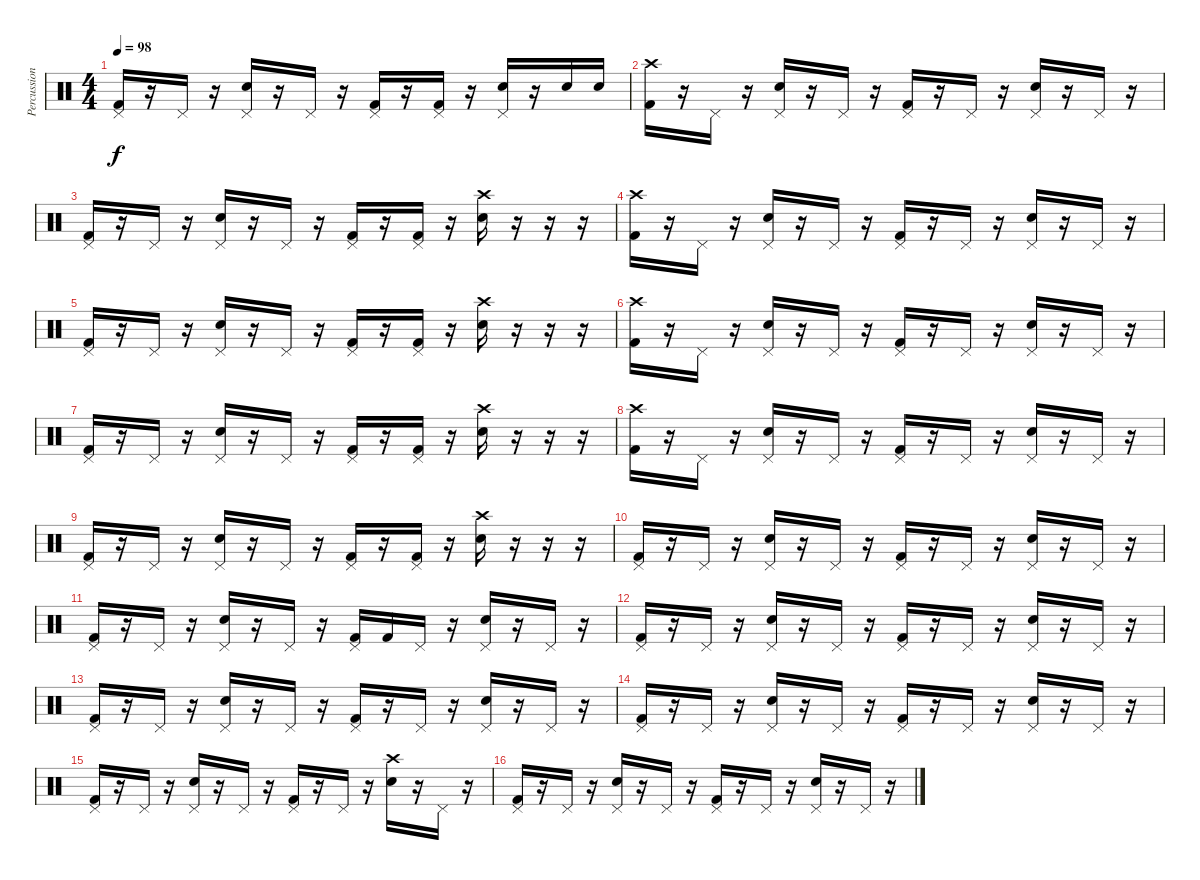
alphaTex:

\track ("Percussion" "Percussion") {instrument percussion}
\staff {score}
\articulation defaults
\ts (4 4)
\tempo 98
\clef neutral
\ks c
("Pedal Hi-Hat (hit)" "Kick (hit) 2").16{dy f} r.16 "Pedal Hi-Hat (hit)".16 r.16 ("Pedal Hi-Hat (hit)" "Snare (hit) 2").16 r.16 "Pedal Hi-Hat (hit)".16 r.16 ("Pedal Hi-Hat (hit)" "Kick (hit) 2").16 r.16 ("Pedal Hi-Hat (hit)" "Kick (hit) 2").16 r.16 ("Pedal Hi-Hat (hit)" "Snare (hit) 2").16 r.16 "Snare (hit) 2".16 "Snare (hit) 2".16 |
("Crash high (hit)" "Kick (hit) 2").16 r.16 "Pedal Hi-Hat (hit)".16 r.16 ("Pedal Hi-Hat (hit)" "Snare (hit) 2").16 r.16 "Pedal Hi-Hat (hit)".16 r.16 ("Pedal Hi-Hat (hit)" "Kick (hit) 2").16 r.16 "Pedal Hi-Hat (hit)".16 r.16 ("Pedal Hi-Hat (hit)" "Snare (hit) 2").16 r.16 "Pedal Hi-Hat (hit)".16 r.16 |
("Pedal Hi-Hat (hit)" "Kick (hit) 2").16 r.16 "Pedal Hi-Hat (hit)".16 r.16 ("Pedal Hi-Hat (hit)" "Snare (hit) 2").16 r.16 "Pedal Hi-Hat (hit)".16 r.16 ("Pedal Hi-Hat (hit)" "Kick (hit) 2").16 r.16 ("Pedal Hi-Hat (hit)" "Kick (hit) 2").16 r.16 ("Crash high (hit)" "Snare (hit) 2").16 r.16 r.16 r.16 |
("Crash high (hit)" "Kick (hit) 2").16 r.16 "Pedal Hi-Hat (hit)".16 r.16 ("Pedal Hi-Hat (hit)" "Snare (hit) 2").16 r.16 "Pedal Hi-Hat (hit)".16 r.16 ("Pedal Hi-Hat (hit)" "Kick (hit) 2").16 r.16 "Pedal Hi-Hat (hit)".16 r.16 ("Pedal Hi-Hat (hit)" "Snare (hit) 2").16 r.16 "Pedal Hi-Hat (hit)".16 r.16 |
("Pedal Hi-Hat (hit)" "Kick (hit) 2").16 r.16 "Pedal Hi-Hat (hit)".16 r.16 ("Pedal Hi-Hat (hit)" "Snare (hit) 2").16 r.16 "Pedal Hi-Hat (hit)".16 r.16 ("Pedal Hi-Hat (hit)" "Kick (hit) 2").16 r.16 ("Pedal Hi-Hat (hit)" "Kick (hit) 2").16 r.16 ("Crash high (hit)" "Snare (hit) 2").16 r.16 r.16 r.16 |
("Crash high (hit)" "Kick (hit) 2").16 r.16 "Pedal Hi-Hat (hit)".16 r.16 ("Pedal Hi-Hat (hit)" "Snare (hit) 2").16 r.16 "Pedal Hi-Hat (hit)".16 r.16 ("Pedal Hi-Hat (hit)" "Kick (hit) 2").16 r.16 "Pedal Hi-Hat (hit)".16 r.16 ("Pedal Hi-Hat (hit)" "Snare (hit) 2").16 r.16 "Pedal Hi-Hat (hit)".16 r.16 |
("Pedal Hi-Hat (hit)" "Kick (hit) 2").16 r.16 "Pedal Hi-Hat (hit)".16 r.16 ("Pedal Hi-Hat (hit)" "Snare (hit) 2").16 r.16 "Pedal Hi-Hat (hit)".16 r.16 ("Pedal Hi-Hat (hit)" "Kick (hit) 2").16 r.16 ("Pedal Hi-Hat (hit)" "Kick (hit) 2").16 r.16 ("Crash high (hit)" "Snare (hit) 2").16 r.16 r.16 r.16 |
("Crash high (hit)" "Kick (hit) 2").16 r.16 "Pedal Hi-Hat (hit)".16 r.16 ("Pedal Hi-Hat (hit)" "Snare (hit) 2").16 r.16 "Pedal Hi-Hat (hit)".16 r.16 ("Pedal Hi-Hat (hit)" "Kick (hit) 2").16 r.16 "Pedal Hi-Hat (hit)".16 r.16 ("Pedal Hi-Hat (hit)" "Snare (hit) 2").16 r.16 "Pedal Hi-Hat (hit)".16 r.16 |
("Pedal Hi-Hat (hit)" "Kick (hit) 2").16 r.16 "Pedal Hi-Hat (hit)".16 r.16 ("Pedal Hi-Hat (hit)" "Snare (hit) 2").16 r.16 "Pedal Hi-Hat (hit)".16 r.16 ("Pedal Hi-Hat (hit)" "Kick (hit) 2").16 r.16 ("Pedal Hi-Hat (hit)" "Kick (hit) 2").16 r.16 ("Crash high (hit)" "Snare (hit) 2").16 r.16 r.16 r.16 |
("Pedal Hi-Hat (hit)" "Kick (hit) 2").16 r.16 "Pedal Hi-Hat (hit)".16 r.16 ("Pedal Hi-Hat (hit)" "Snare (hit) 2").16 r.16 "Pedal Hi-Hat (hit)".16 r.16 ("Pedal Hi-Hat (hit)" "Kick (hit) 2").16 r.16 "Pedal Hi-Hat (hit)".16 r.16 ("Pedal Hi-Hat (hit)" "Snare (hit) 2").16 r.16 "Pedal Hi-Hat (hit)".16 r.16 |
("Pedal Hi-Hat (hit)" "Kick (hit) 2").16 r.16 "Pedal Hi-Hat (hit)".16 r.16 ("Pedal Hi-Hat (hit)" "Snare (hit) 2").16 r.16 "Pedal Hi-Hat (hit)".16 r.16 ("Pedal Hi-Hat (hit)" "Kick (hit) 2").16 "Kick (hit) 2".16 "Pedal Hi-Hat (hit)".16 r.16 ("Pedal Hi-Hat (hit)" "Snare (hit) 2").16 r.16 "Pedal Hi-Hat (hit)".16 r.16 |
("Pedal Hi-Hat (hit)" "Kick (hit) 2").16 r.16 "Pedal Hi-Hat (hit)".16 r.16 ("Pedal Hi-Hat (hit)" "Snare (hit) 2").16 r.16 "Pedal Hi-Hat (hit)".16 r.16 ("Pedal Hi-Hat (hit)" "Kick (hit) 2").16 r.16 "Pedal Hi-Hat (hit)".16 r.16 ("Pedal Hi-Hat (hit)" "Snare (hit) 2").16 r.16 "Pedal Hi-Hat (hit)".16 r.16 |
("Pedal Hi-Hat (hit)" "Kick (hit) 2").16 r.16 "Pedal Hi-Hat (hit)".16 r.16 ("Pedal Hi-Hat (hit)" "Snare (hit) 2").16 r.16 "Pedal Hi-Hat (hit)".16 r.16 ("Pedal Hi-Hat (hit)" "Kick (hit) 2").16 r.16 "Pedal Hi-Hat (hit)".16 r.16 ("Pedal Hi-Hat (hit)" "Snare (hit) 2").16 r.16 "Pedal Hi-Hat (hit)".16 r.16 |
("Pedal Hi-Hat (hit)" "Kick (hit) 2").16 r.16 "Pedal Hi-Hat (hit)".16 r.16 ("Pedal Hi-Hat (hit)" "Snare (hit) 2").16 r.16 "Pedal Hi-Hat (hit)".16 r.16 ("Pedal Hi-Hat (hit)" "Kick (hit) 2").16 r.16 "Pedal Hi-Hat (hit)".16 r.16 ("Pedal Hi-Hat (hit)" "Snare (hit) 2").16 r.16 "Pedal Hi-Hat (hit)".16 r.16 |
("Pedal Hi-Hat (hit)" "Kick (hit) 2").16 r.16 "Pedal Hi-Hat (hit)".16 r.16 ("Pedal Hi-Hat (hit)" "Snare (hit) 2").16 r.16 "Pedal Hi-Hat (hit)".16 r.16 ("Pedal Hi-Hat (hit)" "Kick (hit) 2").16 r.16 "Pedal Hi-Hat (hit)".16 r.16 ("Crash high (hit)" "Snare (hit) 2").16 r.16 "Pedal Hi-Hat (hit)".16 r.16 |
("Pedal Hi-Hat (hit)" "Kick (hit) 2").16 r.16 "Pedal Hi-Hat (hit)".16 r.16 ("Pedal Hi-Hat (hit)" "Snare (hit) 2").16 r.16 "Pedal Hi-Hat (hit)".16 r.16 ("Pedal Hi-Hat (hit)" "Kick (hit) 2").16 r.16 "Pedal Hi-Hat (hit)".16 r.16 ("Pedal Hi-Hat (hit)" "Snare (hit) 2").16 r.16 "Pedal Hi-Hat (hit)".16 r.16
